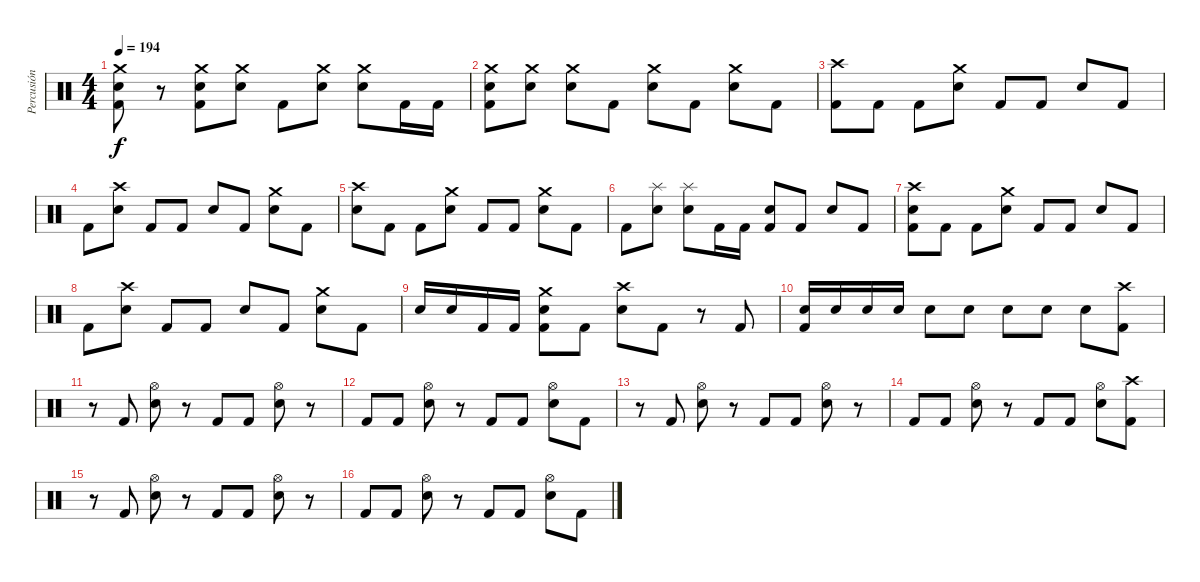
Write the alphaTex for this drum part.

\track ("Percusión" "Percusión") {instrument percussion}
\staff {score}
\articulation defaults
\ts (4 4)
\tempo 194
\clef neutral
\ks c
("Kick (hit) 2" "Snare (hit) 2" "Crash medium (hit)").8{dy f} r.8 ("Kick (hit) 2" "Snare (hit) 2" "Crash medium (hit)").8 ("Snare (hit) 2" "Crash medium (hit)").8 "Kick (hit) 2".8 ("Snare (hit) 2" "Crash medium (hit)").8 ("Snare (hit) 2" "Crash medium (hit)").8 "Kick (hit) 2".16 "Kick (hit) 2".16 |
("Kick (hit) 2" "Snare (hit) 2" "Crash medium (hit)").8 ("Snare (hit) 2" "Crash medium (hit)").8 ("Snare (hit) 2" "Crash medium (hit)").8 "Kick (hit) 2".8 ("Snare (hit) 2" "Crash medium (hit)").8 "Kick (hit) 2".8 ("Snare (hit) 2" "Crash medium (hit)").8 "Kick (hit) 2".8 |
("Kick (hit) 2" "Crash high (hit)").8 "Kick (hit) 2".8 "Kick (hit) 2".8 ("Snare (hit) 2" "Crash medium (hit)").8 "Kick (hit) 2".8 "Kick (hit) 2".8 "Snare (hit) 2".8 "Kick (hit) 2".8 |
"Kick (hit) 2".8 ("Snare (hit) 2" "Crash high (hit)").8 "Kick (hit) 2".8 "Kick (hit) 2".8 "Snare (hit) 2".8 "Kick (hit) 2".8 ("Snare (hit) 2" "Crash medium (hit)").8 "Kick (hit) 2".8 |
("Snare (hit) 2" "Crash high (hit)").8 "Kick (hit) 2".8 "Kick (hit) 2".8 ("Snare (hit) 2" "Crash medium (hit)").8 "Kick (hit) 2".8 "Kick (hit) 2".8 ("Snare (hit) 2" "Crash medium (hit)").8 "Kick (hit) 2".8 |
"Kick (hit) 2".8 ("Snare (hit) 2" "Splash (hit)").8 ("Snare (hit) 2" "Splash (hit)").8 "Kick (hit) 2".16 "Kick (hit) 2".16 ("Kick (hit) 2" "Snare (hit) 2").8 "Kick (hit) 2".8 "Snare (hit) 2".8 "Kick (hit) 2".8 |
("Kick (hit) 2" "Snare (hit) 2" "Crash high (hit)").8 "Kick (hit) 2".8 "Kick (hit) 2".8 ("Snare (hit) 2" "Crash medium (hit)").8 "Kick (hit) 2".8 "Kick (hit) 2".8 "Snare (hit) 2".8 "Kick (hit) 2".8 |
"Kick (hit) 2".8 ("Snare (hit) 2" "Crash high (hit)").8 "Kick (hit) 2".8 "Kick (hit) 2".8 "Snare (hit) 2".8 "Kick (hit) 2".8 ("Snare (hit) 2" "Crash medium (hit)").8 "Kick (hit) 2".8 |
"Snare (hit) 2".16 "Snare (hit) 2".16 "Kick (hit) 2".16 "Kick (hit) 2".16 ("Kick (hit) 2" "Snare (hit) 2" "Crash medium (hit)").8 "Kick (hit) 2".8 ("Snare (hit) 2" "Crash high (hit)").8 "Kick (hit) 2".8 r.8 "Kick (hit) 2".8 |
("Kick (hit) 2" "Snare (hit) 2").16 "Snare (hit) 2".16 "Snare (hit) 2".16 "Snare (hit) 2".16 "Snare (hit) 2".8 "Snare (hit) 2".8 "Snare (hit) 2".8 "Snare (hit) 2".8 "Snare (hit) 2".8 ("Kick (hit) 2" "Crash high (hit)").8 |
r.8 "Kick (hit) 2".8 ("Snare (hit) 2" "Hi-Hat (open)").8 r.8 "Kick (hit) 2".8 "Kick (hit) 2".8 ("Snare (hit) 2" "Hi-Hat (open)").8 r.8 |
"Kick (hit) 2".8 "Kick (hit) 2".8 ("Snare (hit) 2" "Hi-Hat (open)").8 r.8 "Kick (hit) 2".8 "Kick (hit) 2".8 ("Snare (hit) 2" "Hi-Hat (open)").8 "Kick (hit) 2".8 |
r.8 "Kick (hit) 2".8 ("Snare (hit) 2" "Hi-Hat (open)").8 r.8 "Kick (hit) 2".8 "Kick (hit) 2".8 ("Snare (hit) 2" "Hi-Hat (open)").8 r.8 |
"Kick (hit) 2".8 "Kick (hit) 2".8 ("Snare (hit) 2" "Hi-Hat (open)").8 r.8 "Kick (hit) 2".8 "Kick (hit) 2".8 ("Snare (hit) 2" "Hi-Hat (open)").8 ("Kick (hit) 2" "Crash high (hit)").8 |
r.8 "Kick (hit) 2".8 ("Snare (hit) 2" "Hi-Hat (open)").8 r.8 "Kick (hit) 2".8 "Kick (hit) 2".8 ("Snare (hit) 2" "Hi-Hat (open)").8 r.8 |
"Kick (hit) 2".8 "Kick (hit) 2".8 ("Snare (hit) 2" "Hi-Hat (open)").8 r.8 "Kick (hit) 2".8 "Kick (hit) 2".8 ("Snare (hit) 2" "Hi-Hat (open)").8 "Kick (hit) 2".8
